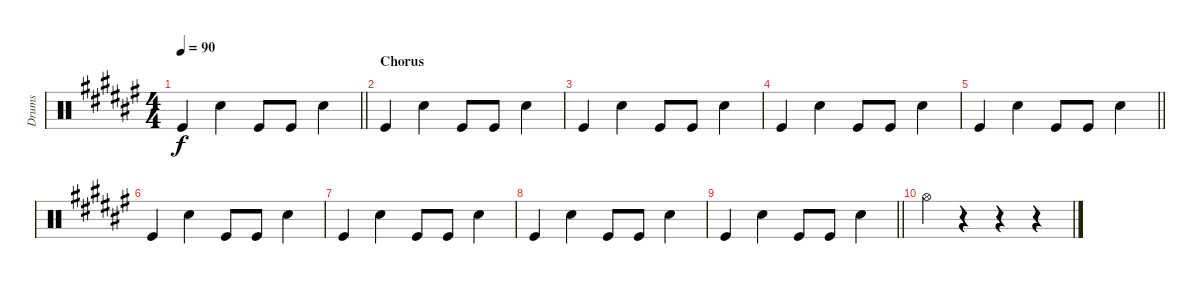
\track ("Drums" "Drums") {instrument percussion}
\staff {score}
\articulation defaults
\ts (4 4)
\tempo 90
\clef neutral
\barLineRight lightlight
\ks d#minor "Kick (hit)".4{dy f} "Snare (hit) 2".4 "Kick (hit)".8 "Kick (hit)".8 "Snare (hit) 2".4
|
\section ("" "Chorus")
"Kick (hit)".4 "Snare (hit) 2".4 "Kick (hit)".8 "Kick (hit)".8 "Snare (hit) 2".4 |
"Kick (hit)".4 "Snare (hit) 2".4 "Kick (hit)".8 "Kick (hit)".8 "Snare (hit) 2".4 |
"Kick (hit)".4 "Snare (hit) 2".4 "Kick (hit)".8 "Kick (hit)".8 "Snare (hit) 2".4 |
\barLineRight lightlight "Kick (hit)".4 "Snare (hit) 2".4 "Kick (hit)".8 "Kick (hit)".8 "Snare (hit) 2".4
|
"Kick (hit)".4 "Snare (hit) 2".4 "Kick (hit)".8 "Kick (hit)".8 "Snare (hit) 2".4 |
"Kick (hit)".4 "Snare (hit) 2".4 "Kick (hit)".8 "Kick (hit)".8 "Snare (hit) 2".4 |
"Kick (hit)".4 "Snare (hit) 2".4 "Kick (hit)".8 "Kick (hit)".8 "Snare (hit) 2".4 |
\barLineRight lightlight "Kick (hit)".4 "Snare (hit) 2".4 "Kick (hit)".8 "Kick (hit)".8 "Snare (hit) 2".4
|
"Hi-Hat (open)".4 r.4 r.4 r.4
